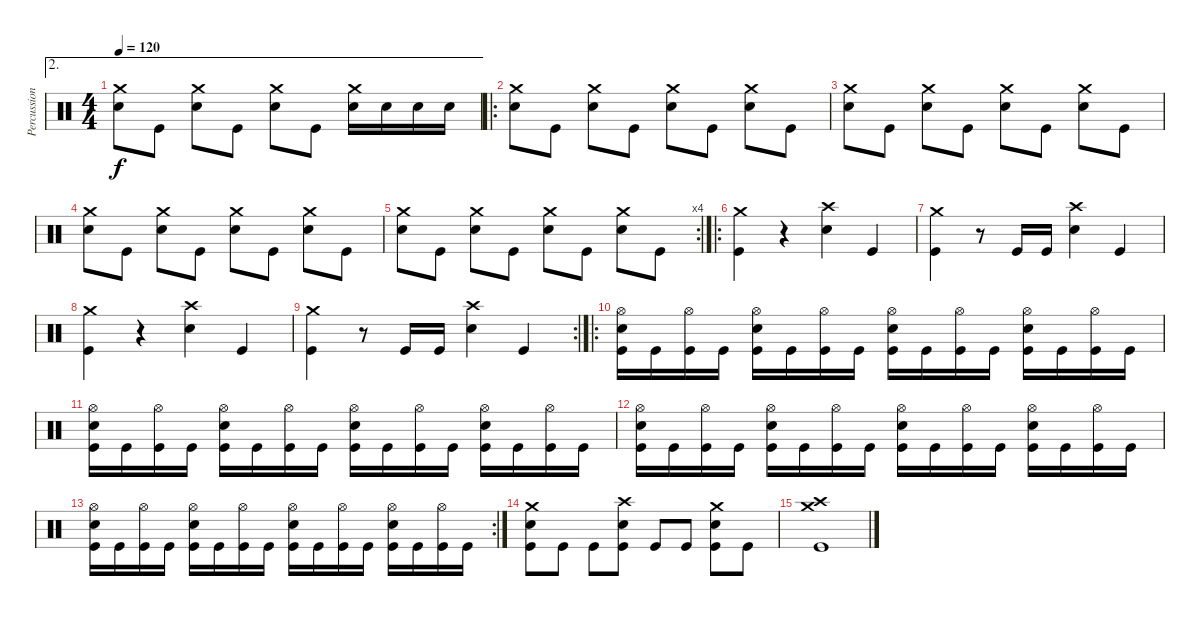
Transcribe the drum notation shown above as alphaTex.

\track ("Percussion" "Percussion") {instrument percussion}
\staff {score}
\articulation defaults
\ae 2
\ts (4 4)
\tempo 120
\clef neutral
\ks c
("Crash medium (hit)" "Snare (hit) 2").8{dy f} "Kick (hit)".8 ("Crash medium (hit)" "Snare (hit) 2").8 "Kick (hit)".8 ("Crash medium (hit)" "Snare (hit) 2").8 "Kick (hit)".8 ("Crash medium (hit)" "Snare (hit) 2").16 "Snare (hit) 2".16 "Snare (hit) 2".16 "Snare (hit) 2".16 |
\ro
("Crash medium (hit)" "Snare (hit) 2").8 "Kick (hit)".8 ("Crash medium (hit)" "Snare (hit) 2").8 "Kick (hit)".8 ("Crash medium (hit)" "Snare (hit) 2").8 "Kick (hit)".8 ("Crash medium (hit)" "Snare (hit) 2").8 "Kick (hit)".8 |
("Crash medium (hit)" "Snare (hit) 2").8 "Kick (hit)".8 ("Crash medium (hit)" "Snare (hit) 2").8 "Kick (hit)".8 ("Crash medium (hit)" "Snare (hit) 2").8 "Kick (hit)".8 ("Crash medium (hit)" "Snare (hit) 2").8 "Kick (hit)".8 |
("Crash medium (hit)" "Snare (hit) 2").8 "Kick (hit)".8 ("Crash medium (hit)" "Snare (hit) 2").8 "Kick (hit)".8 ("Crash medium (hit)" "Snare (hit) 2").8 "Kick (hit)".8 ("Crash medium (hit)" "Snare (hit) 2").8 "Kick (hit)".8 |
\rc 4
("Crash medium (hit)" "Snare (hit) 2").8 "Kick (hit)".8 ("Crash medium (hit)" "Snare (hit) 2").8 "Kick (hit)".8 ("Crash medium (hit)" "Snare (hit) 2").8 "Kick (hit)".8 ("Crash medium (hit)" "Snare (hit) 2").8 "Kick (hit)".8 |
\ro
("Crash medium (hit)" "Kick (hit)").4 r.4 ("Crash high (hit)" "Snare (hit) 2").4 "Kick (hit)".4 |
("Crash medium (hit)" "Kick (hit)").4 r.8 "Kick (hit)".16 "Kick (hit)".16 ("Crash high (hit)" "Snare (hit) 2").4 "Kick (hit)".4 |
("Crash medium (hit)" "Kick (hit)").4 r.4 ("Crash high (hit)" "Snare (hit) 2").4 "Kick (hit)".4 |
\rc 2
("Crash medium (hit)" "Kick (hit)").4 r.8 "Kick (hit)".16 "Kick (hit)".16 ("Crash high (hit)" "Snare (hit) 2").4 "Kick (hit)".4 |
\ro
("Hi-Hat (open)" "Snare (hit) 2" "Kick (hit)").16 "Kick (hit)".16 ("Hi-Hat (open)" "Kick (hit)").16 "Kick (hit)".16 ("Hi-Hat (open)" "Snare (hit) 2" "Kick (hit)").16 "Kick (hit)".16 ("Hi-Hat (open)" "Kick (hit)").16 "Kick (hit)".16 ("Hi-Hat (open)" "Snare (hit) 2" "Kick (hit)").16 "Kick (hit)".16 ("Hi-Hat (open)" "Kick (hit)").16 "Kick (hit)".16 ("Hi-Hat (open)" "Snare (hit) 2" "Kick (hit)").16 "Kick (hit)".16 ("Hi-Hat (open)" "Kick (hit)").16 "Kick (hit)".16 |
("Hi-Hat (open)" "Snare (hit) 2" "Kick (hit)").16 "Kick (hit)".16 ("Hi-Hat (open)" "Kick (hit)").16 "Kick (hit)".16 ("Hi-Hat (open)" "Snare (hit) 2" "Kick (hit)").16 "Kick (hit)".16 ("Hi-Hat (open)" "Kick (hit)").16 "Kick (hit)".16 ("Hi-Hat (open)" "Snare (hit) 2" "Kick (hit)").16 "Kick (hit)".16 ("Hi-Hat (open)" "Kick (hit)").16 "Kick (hit)".16 ("Hi-Hat (open)" "Snare (hit) 2" "Kick (hit)").16 "Kick (hit)".16 ("Hi-Hat (open)" "Kick (hit)").16 "Kick (hit)".16 |
("Hi-Hat (open)" "Snare (hit) 2" "Kick (hit)").16 "Kick (hit)".16 ("Hi-Hat (open)" "Kick (hit)").16 "Kick (hit)".16 ("Hi-Hat (open)" "Snare (hit) 2" "Kick (hit)").16 "Kick (hit)".16 ("Hi-Hat (open)" "Kick (hit)").16 "Kick (hit)".16 ("Hi-Hat (open)" "Snare (hit) 2" "Kick (hit)").16 "Kick (hit)".16 ("Hi-Hat (open)" "Kick (hit)").16 "Kick (hit)".16 ("Hi-Hat (open)" "Snare (hit) 2" "Kick (hit)").16 "Kick (hit)".16 ("Hi-Hat (open)" "Kick (hit)").16 "Kick (hit)".16 |
\rc 2
("Hi-Hat (open)" "Snare (hit) 2" "Kick (hit)").16 "Kick (hit)".16 ("Hi-Hat (open)" "Kick (hit)").16 "Kick (hit)".16 ("Hi-Hat (open)" "Snare (hit) 2" "Kick (hit)").16 "Kick (hit)".16 ("Hi-Hat (open)" "Kick (hit)").16 "Kick (hit)".16 ("Hi-Hat (open)" "Snare (hit) 2" "Kick (hit)").16 "Kick (hit)".16 ("Hi-Hat (open)" "Kick (hit)").16 "Kick (hit)".16 ("Hi-Hat (open)" "Snare (hit) 2" "Kick (hit)").16 "Kick (hit)".16 ("Hi-Hat (open)" "Kick (hit)").16 "Kick (hit)".16 |
("Crash medium (hit)" "Snare (hit) 2" "Kick (hit)").8 "Kick (hit)".8 "Kick (hit)".8 ("Crash high (hit)" "Snare (hit) 2" "Kick (hit)").8 "Kick (hit)".8 "Kick (hit)".8 ("Crash medium (hit)" "Snare (hit) 2" "Kick (hit)").8 "Kick (hit)".8 |
("Crash medium (hit)" "Crash high (hit)" "Kick (hit)").1
